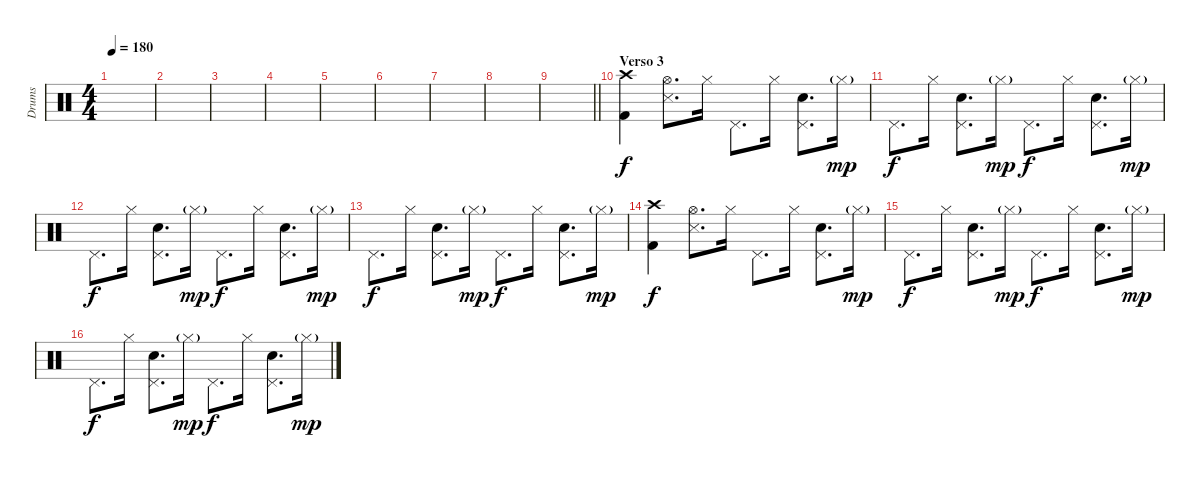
\track ("Drums" "Drums") {instrument percussion}
\staff {score}
\articulation defaults
\ts (4 4)
\tempo 180
\clef neutral
\ks c
|
|
|
|
|
|
|
|
\barLineRight lightlight
|
\section ("" "Verso 3")
("Crash high (hit)" "Kick (hit) 2").4 ("Hi-Hat (open)" "Snare (side stick) 3").8{d} "Hi-Hat (closed)".16 "Pedal Hi-Hat (hit)".8{d} "Hi-Hat (closed)".16 ("Pedal Hi-Hat (hit)" "Snare (hit) 2").8{d} "Hi-Hat (closed)"{g}.16{dy mp} |
"Pedal Hi-Hat (hit)".8{d dy f} "Hi-Hat (closed)".16 ("Pedal Hi-Hat (hit)" "Snare (hit) 2").8{d} "Hi-Hat (closed)"{g}.16{dy mp} "Pedal Hi-Hat (hit)".8{d dy f} "Hi-Hat (closed)".16 ("Pedal Hi-Hat (hit)" "Snare (hit) 2").8{d} "Hi-Hat (closed)"{g}.16{dy mp} |
"Pedal Hi-Hat (hit)".8{d dy f} "Hi-Hat (closed)".16 ("Pedal Hi-Hat (hit)" "Snare (hit) 2").8{d} "Hi-Hat (closed)"{g}.16{dy mp} "Pedal Hi-Hat (hit)".8{d dy f} "Hi-Hat (closed)".16 ("Pedal Hi-Hat (hit)" "Snare (hit) 2").8{d} "Hi-Hat (closed)"{g}.16{dy mp} |
"Pedal Hi-Hat (hit)".8{d dy f} "Hi-Hat (closed)".16 ("Pedal Hi-Hat (hit)" "Snare (hit) 2").8{d} "Hi-Hat (closed)"{g}.16{dy mp} "Pedal Hi-Hat (hit)".8{d dy f} "Hi-Hat (closed)".16 ("Pedal Hi-Hat (hit)" "Snare (hit) 2").8{d} "Hi-Hat (closed)"{g}.16{dy mp} |
("Crash high (hit)" "Kick (hit) 2").4{dy f} ("Hi-Hat (open)" "Snare (side stick) 3").8{d} "Hi-Hat (closed)".16 "Pedal Hi-Hat (hit)".8{d} "Hi-Hat (closed)".16 ("Pedal Hi-Hat (hit)" "Snare (hit) 2").8{d} "Hi-Hat (closed)"{g}.16{dy mp} |
"Pedal Hi-Hat (hit)".8{d dy f} "Hi-Hat (closed)".16 ("Pedal Hi-Hat (hit)" "Snare (hit) 2").8{d} "Hi-Hat (closed)"{g}.16{dy mp} "Pedal Hi-Hat (hit)".8{d dy f} "Hi-Hat (closed)".16 ("Pedal Hi-Hat (hit)" "Snare (hit) 2").8{d} "Hi-Hat (closed)"{g}.16{dy mp} |
"Pedal Hi-Hat (hit)".8{d dy f} "Hi-Hat (closed)".16 ("Pedal Hi-Hat (hit)" "Snare (hit) 2").8{d} "Hi-Hat (closed)"{g}.16{dy mp} "Pedal Hi-Hat (hit)".8{d dy f} "Hi-Hat (closed)".16 ("Pedal Hi-Hat (hit)" "Snare (hit) 2").8{d} "Hi-Hat (closed)"{g}.16{dy mp}
